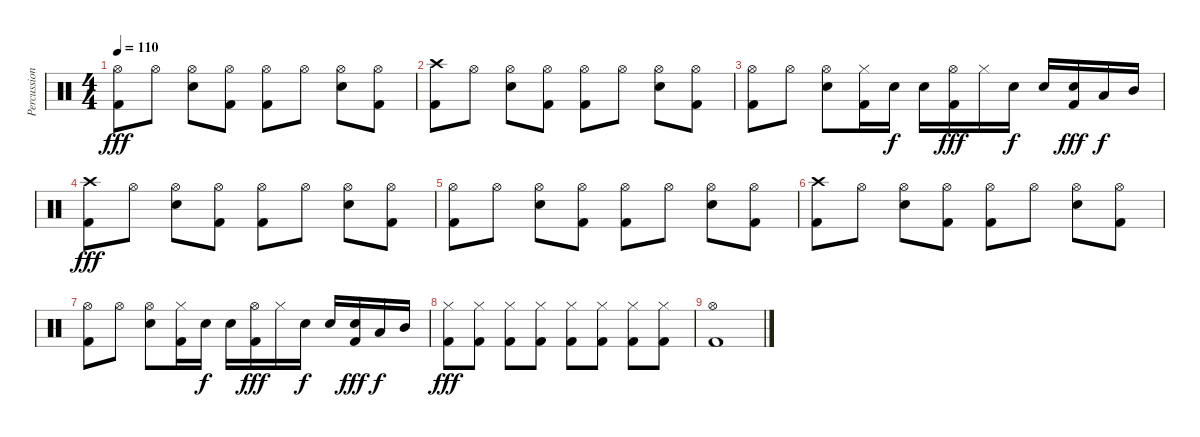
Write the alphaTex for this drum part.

\track ("Percussion" "Percussion") {instrument percussion}
\staff {score}
\articulation defaults
\ts (4 4)
\tempo 110
\clef neutral
\ks c
("Hi-Hat (open)" "Kick (hit) 2").8{dy fff} "Hi-Hat (open)".8 ("Hi-Hat (open)" "Electric Snare (hit)").8 ("Hi-Hat (open)" "Kick (hit) 2").8 ("Hi-Hat (open)" "Kick (hit) 2").8 "Hi-Hat (open)".8 ("Hi-Hat (open)" "Electric Snare (hit)").8 ("Hi-Hat (open)" "Kick (hit) 2").8 |
("Crash high (hit)" "Kick (hit) 2").8 "Hi-Hat (open)".8 ("Hi-Hat (open)" "Electric Snare (hit)").8 ("Hi-Hat (open)" "Kick (hit) 2").8 ("Hi-Hat (open)" "Kick (hit) 2").8 "Hi-Hat (open)".8 ("Hi-Hat (open)" "Electric Snare (hit)").8 ("Hi-Hat (open)" "Kick (hit) 2").8 |
("Hi-Hat (open)" "Kick (hit) 2").8 "Hi-Hat (open)".8 ("Hi-Hat (open)" "Electric Snare (hit)").8 ("Hi-Hat (closed)" "Kick (hit) 2").16 "Electric Snare (hit)".16{dy f} "Electric Snare (hit)".16 ("Hi-Hat (open)" "Kick (hit) 2").16{dy fff} "Hi-Hat (closed)".16 "Electric Snare (hit)".16{dy f} "Electric Snare (hit)".16 ("Electric Snare (hit)" "Kick (hit) 2").16{dy fff} "Low Tom (hit)".16{dy f} "Mid Tom (hit)".16 |
("Crash high (hit)" "Kick (hit) 2").8{dy fff} "Hi-Hat (open)".8 ("Hi-Hat (open)" "Electric Snare (hit)").8 ("Hi-Hat (open)" "Kick (hit) 2").8 ("Hi-Hat (open)" "Kick (hit) 2").8 "Hi-Hat (open)".8 ("Hi-Hat (open)" "Electric Snare (hit)").8 ("Hi-Hat (open)" "Kick (hit) 2").8 |
("Hi-Hat (open)" "Kick (hit) 2").8 "Hi-Hat (open)".8 ("Hi-Hat (open)" "Electric Snare (hit)").8 ("Hi-Hat (open)" "Kick (hit) 2").8 ("Hi-Hat (open)" "Kick (hit) 2").8 "Hi-Hat (open)".8 ("Hi-Hat (open)" "Electric Snare (hit)").8 ("Hi-Hat (open)" "Kick (hit) 2").8 |
("Crash high (hit)" "Kick (hit) 2").8 "Hi-Hat (open)".8 ("Hi-Hat (open)" "Electric Snare (hit)").8 ("Hi-Hat (open)" "Kick (hit) 2").8 ("Hi-Hat (open)" "Kick (hit) 2").8 "Hi-Hat (open)".8 ("Hi-Hat (open)" "Electric Snare (hit)").8 ("Hi-Hat (open)" "Kick (hit) 2").8 |
("Hi-Hat (open)" "Kick (hit) 2").8 "Hi-Hat (open)".8 ("Hi-Hat (open)" "Electric Snare (hit)").8 ("Hi-Hat (closed)" "Kick (hit) 2").16 "Electric Snare (hit)".16{dy f} "Electric Snare (hit)".16 ("Hi-Hat (open)" "Kick (hit) 2").16{dy fff} "Hi-Hat (closed)".16 "Electric Snare (hit)".16{dy f} "Electric Snare (hit)".16 ("Electric Snare (hit)" "Kick (hit) 2").16{dy fff} "Low Tom (hit)".16{dy f} "Mid Tom (hit)".16 |
("Hi-Hat (closed)" "Kick (hit) 2").8{dy fff} ("Hi-Hat (closed)" "Kick (hit) 2").8 ("Hi-Hat (closed)" "Kick (hit) 2").8 ("Hi-Hat (closed)" "Kick (hit) 2").8 ("Hi-Hat (closed)" "Kick (hit) 2").8 ("Hi-Hat (closed)" "Kick (hit) 2").8 ("Hi-Hat (closed)" "Kick (hit) 2").8 ("Hi-Hat (closed)" "Kick (hit) 2").8 |
("Hi-Hat (open)" "Kick (hit) 2").1
